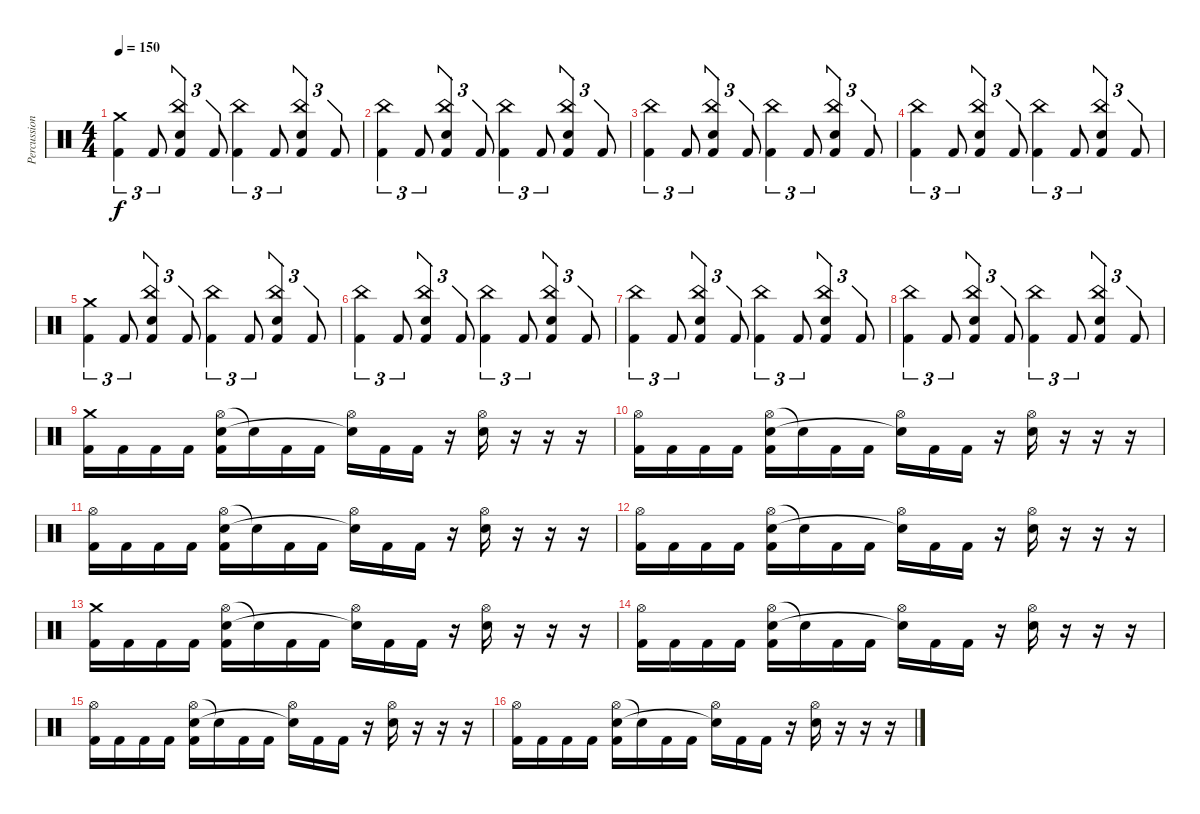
\track ("Percussion" "Percussion") {instrument percussion}
\staff {score}
\articulation defaults
\ts (4 4)
\tempo 150
\clef neutral
\ks c
("Crash medium (hit)" "Kick (hit) 2").4{tu (3 2) dy f} "Kick (hit) 2".8{tu (3 2)} ("China (hit)" "Electric Snare (hit)" "Kick (hit) 2").4{tu (3 2)} "Kick (hit) 2".8{tu (3 2)} ("China (hit)" "Kick (hit) 2").4{tu (3 2)} "Kick (hit) 2".8{tu (3 2)} ("China (hit)" "Electric Snare (hit)" "Kick (hit) 2").4{tu (3 2)} "Kick (hit) 2".8{tu (3 2)} |
("China (hit)" "Kick (hit) 2").4{tu (3 2)} "Kick (hit) 2".8{tu (3 2)} ("China (hit)" "Electric Snare (hit)" "Kick (hit) 2").4{tu (3 2)} "Kick (hit) 2".8{tu (3 2)} ("China (hit)" "Kick (hit) 2").4{tu (3 2)} "Kick (hit) 2".8{tu (3 2)} ("China (hit)" "Electric Snare (hit)" "Kick (hit) 2").4{tu (3 2)} "Kick (hit) 2".8{tu (3 2)} |
("China (hit)" "Kick (hit) 2").4{tu (3 2)} "Kick (hit) 2".8{tu (3 2)} ("China (hit)" "Electric Snare (hit)" "Kick (hit) 2").4{tu (3 2)} "Kick (hit) 2".8{tu (3 2)} ("China (hit)" "Kick (hit) 2").4{tu (3 2)} "Kick (hit) 2".8{tu (3 2)} ("China (hit)" "Electric Snare (hit)" "Kick (hit) 2").4{tu (3 2)} "Kick (hit) 2".8{tu (3 2)} |
("China (hit)" "Kick (hit) 2").4{tu (3 2)} "Kick (hit) 2".8{tu (3 2)} ("China (hit)" "Electric Snare (hit)" "Kick (hit) 2").4{tu (3 2)} "Kick (hit) 2".8{tu (3 2)} ("China (hit)" "Kick (hit) 2").4{tu (3 2)} "Kick (hit) 2".8{tu (3 2)} ("China (hit)" "Electric Snare (hit)" "Kick (hit) 2").4{tu (3 2)} "Kick (hit) 2".8{tu (3 2)} |
("Crash medium (hit)" "Kick (hit) 2").4{tu (3 2)} "Kick (hit) 2".8{tu (3 2)} ("China (hit)" "Electric Snare (hit)" "Kick (hit) 2").4{tu (3 2)} "Kick (hit) 2".8{tu (3 2)} ("China (hit)" "Kick (hit) 2").4{tu (3 2)} "Kick (hit) 2".8{tu (3 2)} ("China (hit)" "Electric Snare (hit)" "Kick (hit) 2").4{tu (3 2)} "Kick (hit) 2".8{tu (3 2)} |
("China (hit)" "Kick (hit) 2").4{tu (3 2)} "Kick (hit) 2".8{tu (3 2)} ("China (hit)" "Electric Snare (hit)" "Kick (hit) 2").4{tu (3 2)} "Kick (hit) 2".8{tu (3 2)} ("China (hit)" "Kick (hit) 2").4{tu (3 2)} "Kick (hit) 2".8{tu (3 2)} ("China (hit)" "Electric Snare (hit)" "Kick (hit) 2").4{tu (3 2)} "Kick (hit) 2".8{tu (3 2)} |
("China (hit)" "Kick (hit) 2").4{tu (3 2)} "Kick (hit) 2".8{tu (3 2)} ("China (hit)" "Electric Snare (hit)" "Kick (hit) 2").4{tu (3 2)} "Kick (hit) 2".8{tu (3 2)} ("China (hit)" "Kick (hit) 2").4{tu (3 2)} "Kick (hit) 2".8{tu (3 2)} ("China (hit)" "Electric Snare (hit)" "Kick (hit) 2").4{tu (3 2)} "Kick (hit) 2".8{tu (3 2)} |
("China (hit)" "Kick (hit) 2").4{tu (3 2)} "Kick (hit) 2".8{tu (3 2)} ("China (hit)" "Electric Snare (hit)" "Kick (hit) 2").4{tu (3 2)} "Kick (hit) 2".8{tu (3 2)} ("China (hit)" "Kick (hit) 2").4{tu (3 2)} "Kick (hit) 2".8{tu (3 2)} ("China (hit)" "Electric Snare (hit)" "Kick (hit) 2").4{tu (3 2)} "Kick (hit) 2".8{tu (3 2)} |
("Crash medium (hit)" "Kick (hit) 2").16 "Kick (hit) 2".16 "Kick (hit) 2".16 "Kick (hit) 2".16 ("Hi-Hat (open)" "Electric Snare (hit)" "Kick (hit) 2").16 "Snare (hit)"{t}.16 "Kick (hit) 2".16 "Kick (hit) 2".16 ("Hi-Hat (open)" "Snare (hit)"{t}).16 "Kick (hit) 2".16 "Kick (hit) 2".16 r.16 ("Hi-Hat (open)" "Electric Snare (hit)").16 r.16 r.16 r.16 |
("Hi-Hat (open)" "Kick (hit) 2").16 "Kick (hit) 2".16 "Kick (hit) 2".16 "Kick (hit) 2".16 ("Hi-Hat (open)" "Electric Snare (hit)" "Kick (hit) 2").16 "Snare (hit)"{t}.16 "Kick (hit) 2".16 "Kick (hit) 2".16 ("Hi-Hat (open)" "Snare (hit)"{t}).16 "Kick (hit) 2".16 "Kick (hit) 2".16 r.16 ("Hi-Hat (open)" "Electric Snare (hit)").16 r.16 r.16 r.16 |
("Hi-Hat (open)" "Kick (hit) 2").16 "Kick (hit) 2".16 "Kick (hit) 2".16 "Kick (hit) 2".16 ("Hi-Hat (open)" "Electric Snare (hit)" "Kick (hit) 2").16 "Snare (hit)"{t}.16 "Kick (hit) 2".16 "Kick (hit) 2".16 ("Hi-Hat (open)" "Snare (hit)"{t}).16 "Kick (hit) 2".16 "Kick (hit) 2".16 r.16 ("Hi-Hat (open)" "Electric Snare (hit)").16 r.16 r.16 r.16 |
("Hi-Hat (open)" "Kick (hit) 2").16 "Kick (hit) 2".16 "Kick (hit) 2".16 "Kick (hit) 2".16 ("Hi-Hat (open)" "Electric Snare (hit)" "Kick (hit) 2").16 "Snare (hit)"{t}.16 "Kick (hit) 2".16 "Kick (hit) 2".16 ("Hi-Hat (open)" "Snare (hit)"{t}).16 "Kick (hit) 2".16 "Kick (hit) 2".16 r.16 ("Hi-Hat (open)" "Electric Snare (hit)").16 r.16 r.16 r.16 |
("Crash medium (hit)" "Kick (hit) 2").16 "Kick (hit) 2".16 "Kick (hit) 2".16 "Kick (hit) 2".16 ("Hi-Hat (open)" "Electric Snare (hit)" "Kick (hit) 2").16 "Snare (hit)"{t}.16 "Kick (hit) 2".16 "Kick (hit) 2".16 ("Hi-Hat (open)" "Snare (hit)"{t}).16 "Kick (hit) 2".16 "Kick (hit) 2".16 r.16 ("Hi-Hat (open)" "Electric Snare (hit)").16 r.16 r.16 r.16 |
("Hi-Hat (open)" "Kick (hit) 2").16 "Kick (hit) 2".16 "Kick (hit) 2".16 "Kick (hit) 2".16 ("Hi-Hat (open)" "Electric Snare (hit)" "Kick (hit) 2").16 "Snare (hit)"{t}.16 "Kick (hit) 2".16 "Kick (hit) 2".16 ("Hi-Hat (open)" "Snare (hit)"{t}).16 "Kick (hit) 2".16 "Kick (hit) 2".16 r.16 ("Hi-Hat (open)" "Electric Snare (hit)").16 r.16 r.16 r.16 |
("Hi-Hat (open)" "Kick (hit) 2").16 "Kick (hit) 2".16 "Kick (hit) 2".16 "Kick (hit) 2".16 ("Hi-Hat (open)" "Electric Snare (hit)" "Kick (hit) 2").16 "Snare (hit)"{t}.16 "Kick (hit) 2".16 "Kick (hit) 2".16 ("Hi-Hat (open)" "Snare (hit)"{t}).16 "Kick (hit) 2".16 "Kick (hit) 2".16 r.16 ("Hi-Hat (open)" "Electric Snare (hit)").16 r.16 r.16 r.16 |
("Hi-Hat (open)" "Kick (hit) 2").16 "Kick (hit) 2".16 "Kick (hit) 2".16 "Kick (hit) 2".16 ("Hi-Hat (open)" "Electric Snare (hit)" "Kick (hit) 2").16 "Snare (hit)"{t}.16 "Kick (hit) 2".16 "Kick (hit) 2".16 ("Hi-Hat (open)" "Snare (hit)"{t}).16 "Kick (hit) 2".16 "Kick (hit) 2".16 r.16 ("Hi-Hat (open)" "Electric Snare (hit)").16 r.16 r.16 r.16
